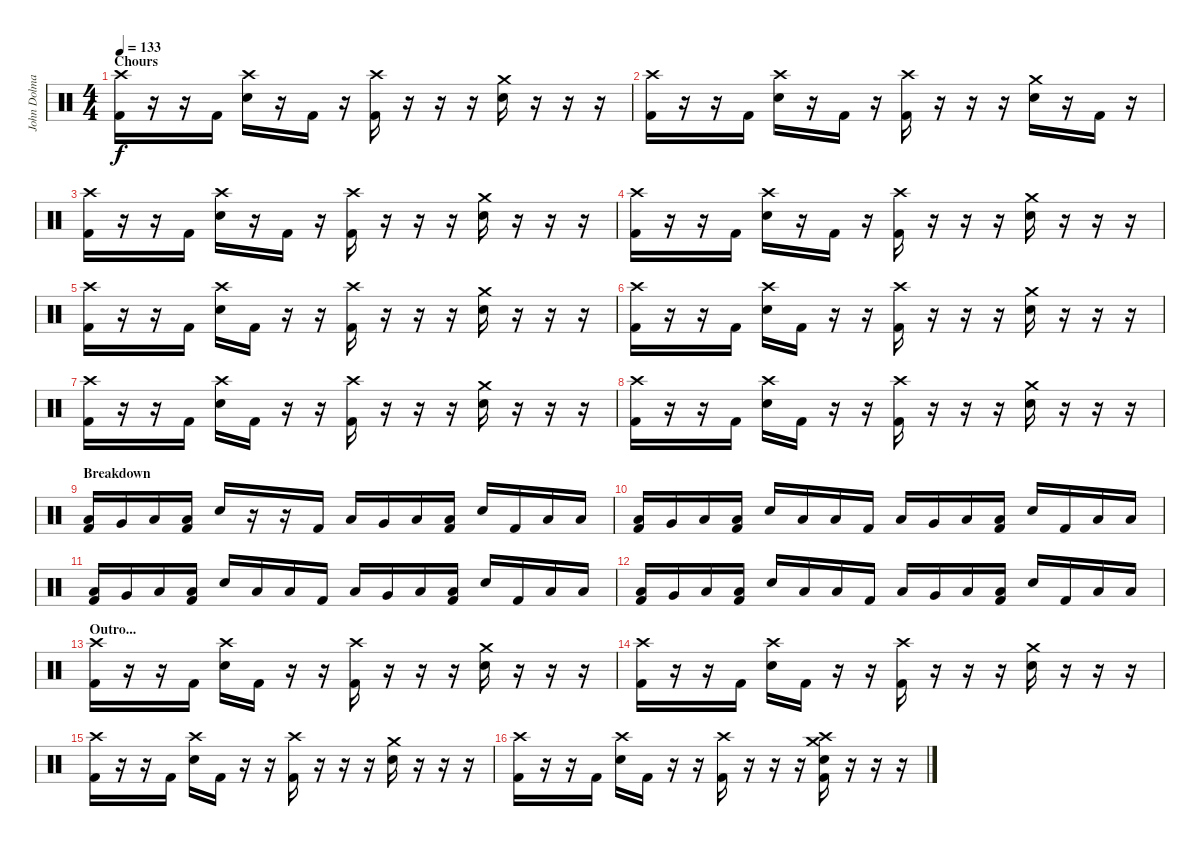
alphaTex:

\track ("John Dolmayan" "John Dolma") {instrument percussion}
\staff {score}
\articulation defaults
\ts (4 4)
\section ("" "Chours")
\tempo 133
\clef neutral
\ks c
("Crash high (hit)" "Kick (hit) 2").16{dy f} r.16 r.16 "Kick (hit) 2".16 ("Crash high (hit)" "Electric Snare (hit)").16 r.16 "Kick (hit) 2".16 r.16 ("Crash high (hit)" "Kick (hit) 2").16 r.16 r.16 r.16 ("Crash medium (hit)" "Electric Snare (hit)").16 r.16 r.16 r.16 |
("Crash high (hit)" "Kick (hit) 2").16 r.16 r.16 "Kick (hit) 2".16 ("Crash high (hit)" "Electric Snare (hit)").16 r.16 "Kick (hit) 2".16 r.16 ("Crash high (hit)" "Kick (hit) 2").16 r.16 r.16 r.16 ("Crash medium (hit)" "Electric Snare (hit)").16 r.16 "Kick (hit) 2".16 r.16 |
("Crash high (hit)" "Kick (hit) 2").16 r.16 r.16 "Kick (hit) 2".16 ("Crash high (hit)" "Electric Snare (hit)").16 r.16 "Kick (hit) 2".16 r.16 ("Crash high (hit)" "Kick (hit) 2").16 r.16 r.16 r.16 ("Crash medium (hit)" "Electric Snare (hit)").16 r.16 r.16 r.16 |
("Crash high (hit)" "Kick (hit) 2").16 r.16 r.16 "Kick (hit) 2".16 ("Crash high (hit)" "Electric Snare (hit)").16 r.16 "Kick (hit) 2".16 r.16 ("Crash high (hit)" "Kick (hit) 2").16 r.16 r.16 r.16 ("Crash medium (hit)" "Electric Snare (hit)").16 r.16 r.16 r.16 |
("Crash high (hit)" "Kick (hit) 2").16 r.16 r.16 "Kick (hit) 2".16 ("Crash high (hit)" "Electric Snare (hit)").16 "Kick (hit) 2".16 r.16 r.16 ("Crash high (hit)" "Kick (hit) 2").16 r.16 r.16 r.16 ("Crash medium (hit)" "Electric Snare (hit)").16 r.16 r.16 r.16 |
("Crash high (hit)" "Kick (hit) 2").16 r.16 r.16 "Kick (hit) 2".16 ("Crash high (hit)" "Electric Snare (hit)").16 "Kick (hit) 2".16 r.16 r.16 ("Crash high (hit)" "Kick (hit) 2").16 r.16 r.16 r.16 ("Crash medium (hit)" "Electric Snare (hit)").16 r.16 r.16 r.16 |
("Crash high (hit)" "Kick (hit) 2").16 r.16 r.16 "Kick (hit) 2".16 ("Crash high (hit)" "Electric Snare (hit)").16 "Kick (hit) 2".16 r.16 r.16 ("Crash high (hit)" "Kick (hit) 2").16 r.16 r.16 r.16 ("Crash medium (hit)" "Electric Snare (hit)").16 r.16 r.16 r.16 |
("Crash high (hit)" "Kick (hit) 2").16 r.16 r.16 "Kick (hit) 2".16 ("Crash high (hit)" "Electric Snare (hit)").16 "Kick (hit) 2".16 r.16 r.16 ("Crash high (hit)" "Kick (hit) 2").16 r.16 r.16 r.16 ("Crash medium (hit)" "Electric Snare (hit)").16 r.16 r.16 r.16 |
\section ("" "Breakdown")
("Low Tom (hit)" "Kick (hit) 2").16 "Very Low Tom (hit)".16 "Low Floor Tom (hit)".16 ("Low Floor Tom (hit)" "Kick (hit) 2").16 "Electric Snare (hit)".16 r.16 r.16 "Kick (hit) 2".16 "Low Tom (hit)".16 "Very Low Tom (hit)".16 "Low Floor Tom (hit)".16 ("Low Floor Tom (hit)" "Kick (hit) 2").16 "Electric Snare (hit)".16 "Kick (hit) 2".16 "Low Floor Tom (hit)".16 "Low Floor Tom (hit)".16 |
("Low Tom (hit)" "Kick (hit) 2").16 "Very Low Tom (hit)".16 "Low Floor Tom (hit)".16 ("Low Floor Tom (hit)" "Kick (hit) 2").16 "Electric Snare (hit)".16 "Low Floor Tom (hit)".16 "Low Floor Tom (hit)".16 "Kick (hit) 2".16 "Low Tom (hit)".16 "Very Low Tom (hit)".16 "Low Floor Tom (hit)".16 ("Low Floor Tom (hit)" "Kick (hit) 2").16 "Electric Snare (hit)".16 "Kick (hit) 2".16 "Low Floor Tom (hit)".16 "Low Floor Tom (hit)".16 |
("Low Tom (hit)" "Kick (hit) 2").16 "Very Low Tom (hit)".16 "Low Floor Tom (hit)".16 ("Low Floor Tom (hit)" "Kick (hit) 2").16 "Electric Snare (hit)".16 "Low Floor Tom (hit)".16 "Low Floor Tom (hit)".16 "Kick (hit) 2".16 "Low Tom (hit)".16 "Very Low Tom (hit)".16 "Low Floor Tom (hit)".16 ("Low Floor Tom (hit)" "Kick (hit) 2").16 "Electric Snare (hit)".16 "Kick (hit) 2".16 "Low Floor Tom (hit)".16 "Low Floor Tom (hit)".16 |
("Low Tom (hit)" "Kick (hit) 2").16 "Very Low Tom (hit)".16 "Low Floor Tom (hit)".16 ("Low Floor Tom (hit)" "Kick (hit) 2").16 "Electric Snare (hit)".16 "Low Floor Tom (hit)".16 "Low Floor Tom (hit)".16 "Kick (hit) 2".16 "Low Tom (hit)".16 "Very Low Tom (hit)".16 "Low Floor Tom (hit)".16 ("Low Floor Tom (hit)" "Kick (hit) 2").16 "Electric Snare (hit)".16 "Kick (hit) 2".16 "Low Floor Tom (hit)".16 "Low Floor Tom (hit)".16 |
\section ("" "Outro...")
("Crash high (hit)" "Kick (hit) 2").16 r.16 r.16 "Kick (hit) 2".16 ("Crash high (hit)" "Electric Snare (hit)").16 "Kick (hit) 2".16 r.16 r.16 ("Crash high (hit)" "Kick (hit) 2").16 r.16 r.16 r.16 ("Crash medium (hit)" "Electric Snare (hit)").16 r.16 r.16 r.16 |
("Crash high (hit)" "Kick (hit) 2").16 r.16 r.16 "Kick (hit) 2".16 ("Crash high (hit)" "Electric Snare (hit)").16 "Kick (hit) 2".16 r.16 r.16 ("Crash high (hit)" "Kick (hit) 2").16 r.16 r.16 r.16 ("Crash medium (hit)" "Electric Snare (hit)").16 r.16 r.16 r.16 |
("Crash high (hit)" "Kick (hit) 2").16 r.16 r.16 "Kick (hit) 2".16 ("Crash high (hit)" "Electric Snare (hit)").16 "Kick (hit) 2".16 r.16 r.16 ("Crash high (hit)" "Kick (hit) 2").16 r.16 r.16 r.16 ("Crash medium (hit)" "Electric Snare (hit)").16 r.16 r.16 r.16 |
("Crash high (hit)" "Kick (hit) 2").16 r.16 r.16 "Kick (hit) 2".16 ("Crash high (hit)" "Electric Snare (hit)").16 "Kick (hit) 2".16 r.16 r.16 ("Crash high (hit)" "Kick (hit) 2").16 r.16 r.16 r.16 ("Crash medium (hit)" "Crash high (hit)" "Electric Snare (hit)" "Kick (hit) 2").16 r.16 r.16 r.16
